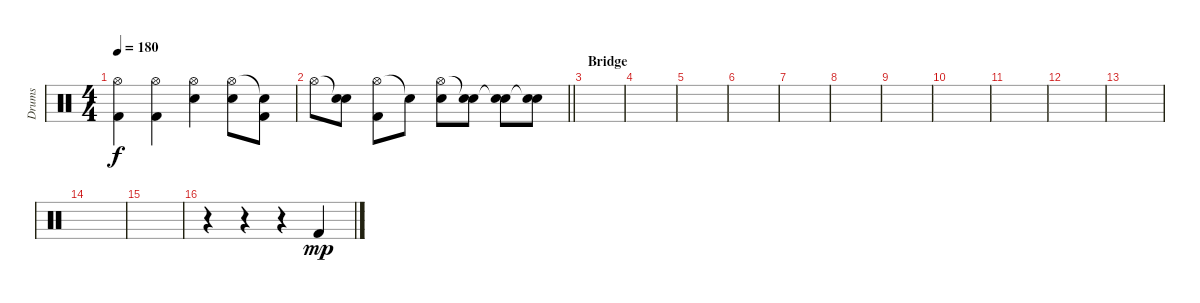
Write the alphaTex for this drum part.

\track ("Drums" "Drums") {instrument percussion}
\staff {score}
\articulation defaults
\ts (4 4)
\tempo 180
\clef neutral
\ks c
("Hi-Hat (open)" "Kick (hit) 2").4{dy f} ("Hi-Hat (open)" "Kick (hit) 2").4 ("Hi-Hat (open)" "Snare (hit) 2").4 ("Hi-Hat (open)" "Snare (hit) 2").8 ("Snare (hit)"{t} "Kick (hit) 2").8 |
\barLineRight lightlight "Hi-Hat (open)".8
("Snare (hit)"{t} "Snare (hit) 2").8 ("Hi-Hat (open)" "Kick (hit) 2").8 "Snare (hit)"{t}.8 ("Hi-Hat (open)" "Snare (hit) 2").8 ("Snare (hit)"{t} "Snare (hit) 2").8 ("Snare (hit)"{t} "Snare (hit) 2").8 ("Snare (hit)"{t} "Snare (hit) 2").8 |
\section ("" "Bridge")
|
|
|
|
|
|
|
|
|
|
|
|
|
r.4 r.4 r.4 "Kick (hit) 2".4{dy mp}
